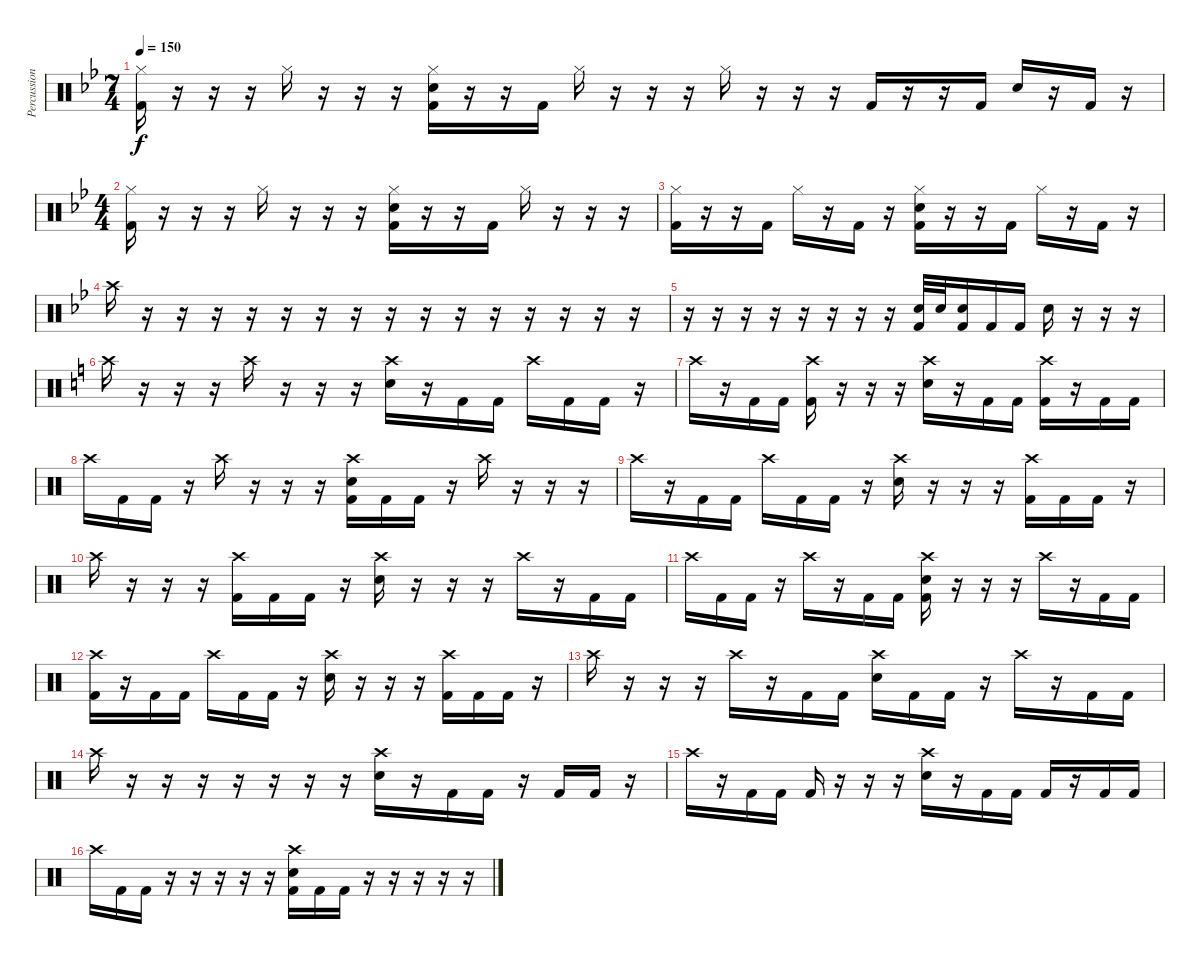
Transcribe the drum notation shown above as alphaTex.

\track ("Percussion" "Percussion") {instrument percussion}
\staff {score}
\articulation defaults
\ts (7 4)
\tempo 150
\clef neutral
\ks bb
("Hi-Hat (closed)" "Kick (hit) 2").16{dy f} r.16 r.16 r.16 "Hi-Hat (closed)".16 r.16 r.16 r.16 ("Hi-Hat (closed)" "Electric Snare (hit)" "Kick (hit) 2").16 r.16 r.16 "Kick (hit) 2".16 "Hi-Hat (closed)".16 r.16 r.16 r.16 "Hi-Hat (closed)".16 r.16 r.16 r.16 "Kick (hit) 2".16 r.16 r.16 "Kick (hit) 2".16 "Electric Snare (hit)".16 r.16 "Kick (hit) 2".16 r.16 |
\ts (4 4)
("Hi-Hat (closed)" "Kick (hit) 2").16 r.16 r.16 r.16 "Hi-Hat (closed)".16 r.16 r.16 r.16 ("Hi-Hat (closed)" "Electric Snare (hit)" "Kick (hit) 2").16 r.16 r.16 "Kick (hit) 2".16 "Hi-Hat (closed)".16 r.16 r.16 r.16 |
("Hi-Hat (closed)" "Kick (hit) 2").16 r.16 r.16 "Kick (hit) 2".16 "Hi-Hat (closed)".16 r.16 "Kick (hit) 2".16 r.16 ("Hi-Hat (closed)" "Electric Snare (hit)" "Kick (hit) 2").16 r.16 r.16 "Kick (hit) 2".16 "Hi-Hat (closed)".16 r.16 "Kick (hit) 2".16 r.16 |
"Crash high (hit)".16 r.16 r.16 r.16 r.16 r.16 r.16 r.16 r.16 r.16 r.16 r.16 r.16 r.16 r.16 r.16 |
r.16 r.16 r.16 r.16 r.16 r.16 r.16 r.16 ("Electric Snare (hit)" "Kick (hit) 2").32 "Electric Snare (hit)".32 ("Electric Snare (hit)" "Kick (hit) 2").16 "Kick (hit) 2".16 "Kick (hit) 2".16 "Electric Snare (hit)".16 r.16 r.16 r.16 |
\ks c "Crash high (hit)".16
r.16 r.16 r.16 "Crash high (hit)".16 r.16 r.16 r.16 ("Crash high (hit)" "Electric Snare (hit)").16 r.16 "Kick (hit) 2".16 "Kick (hit) 2".16 "Crash high (hit)".16 "Kick (hit) 2".16 "Kick (hit) 2".16 r.16 |
"Crash high (hit)".16 r.16 "Kick (hit) 2".16 "Kick (hit) 2".16 ("Crash high (hit)" "Kick (hit) 2").16 r.16 r.16 r.16 ("Crash high (hit)" "Electric Snare (hit)").16 r.16 "Kick (hit) 2".16 "Kick (hit) 2".16 ("Crash high (hit)" "Kick (hit) 2").16 r.16 "Kick (hit) 2".16 "Kick (hit) 2".16 |
"Crash high (hit)".16 "Kick (hit) 2".16 "Kick (hit) 2".16 r.16 "Crash high (hit)".16 r.16 r.16 r.16 ("Crash high (hit)" "Electric Snare (hit)" "Kick (hit) 2").16 "Kick (hit) 2".16 "Kick (hit) 2".16 r.16 "Crash high (hit)".16 r.16 r.16 r.16 |
"Crash high (hit)".16 r.16 "Kick (hit) 2".16 "Kick (hit) 2".16 "Crash high (hit)".16 "Kick (hit) 2".16 "Kick (hit) 2".16 r.16 ("Crash high (hit)" "Electric Snare (hit)").16 r.16 r.16 r.16 ("Crash high (hit)" "Kick (hit) 2").16 "Kick (hit) 2".16 "Kick (hit) 2".16 r.16 |
"Crash high (hit)".16 r.16 r.16 r.16 ("Crash high (hit)" "Kick (hit) 2").16 "Kick (hit) 2".16 "Kick (hit) 2".16 r.16 ("Crash high (hit)" "Electric Snare (hit)").16 r.16 r.16 r.16 "Crash high (hit)".16 r.16 "Kick (hit) 2".16 "Kick (hit) 2".16 |
"Crash high (hit)".16 "Kick (hit) 2".16 "Kick (hit) 2".16 r.16 "Crash high (hit)".16 r.16 "Kick (hit) 2".16 "Kick (hit) 2".16 ("Crash high (hit)" "Electric Snare (hit)" "Kick (hit) 2").16 r.16 r.16 r.16 "Crash high (hit)".16 r.16 "Kick (hit) 2".16 "Kick (hit) 2".16 |
("Crash high (hit)" "Kick (hit) 2").16 r.16 "Kick (hit) 2".16 "Kick (hit) 2".16 "Crash high (hit)".16 "Kick (hit) 2".16 "Kick (hit) 2".16 r.16 ("Crash high (hit)" "Electric Snare (hit)").16 r.16 r.16 r.16 ("Crash high (hit)" "Kick (hit) 2").16 "Kick (hit) 2".16 "Kick (hit) 2".16 r.16 |
"Crash high (hit)".16 r.16 r.16 r.16 "Crash high (hit)".16 r.16 "Kick (hit) 2".16 "Kick (hit) 2".16 ("Crash high (hit)" "Electric Snare (hit)").16 "Kick (hit) 2".16 "Kick (hit) 2".16 r.16 "Crash high (hit)".16 r.16 "Kick (hit) 2".16 "Kick (hit) 2".16 |
"Crash high (hit)".16 r.16 r.16 r.16 r.16 r.16 r.16 r.16 ("Crash high (hit)" "Electric Snare (hit)").16 r.16 "Kick (hit) 2".16 "Kick (hit) 2".16 r.16 "Kick (hit) 2".16 "Kick (hit) 2".16 r.16 |
"Crash high (hit)".16 r.16 "Kick (hit) 2".16 "Kick (hit) 2".16 "Kick (hit) 2".16 r.16 r.16 r.16 ("Crash high (hit)" "Electric Snare (hit)").16 r.16 "Kick (hit) 2".16 "Kick (hit) 2".16 "Kick (hit) 2".16 r.16 "Kick (hit) 2".16 "Kick (hit) 2".16 |
"Crash high (hit)".16 "Kick (hit) 2".16 "Kick (hit) 2".16 r.16 r.16 r.16 r.16 r.16 ("Crash high (hit)" "Electric Snare (hit)" "Kick (hit) 2").16 "Kick (hit) 2".16 "Kick (hit) 2".16 r.16 r.16 r.16 r.16 r.16
